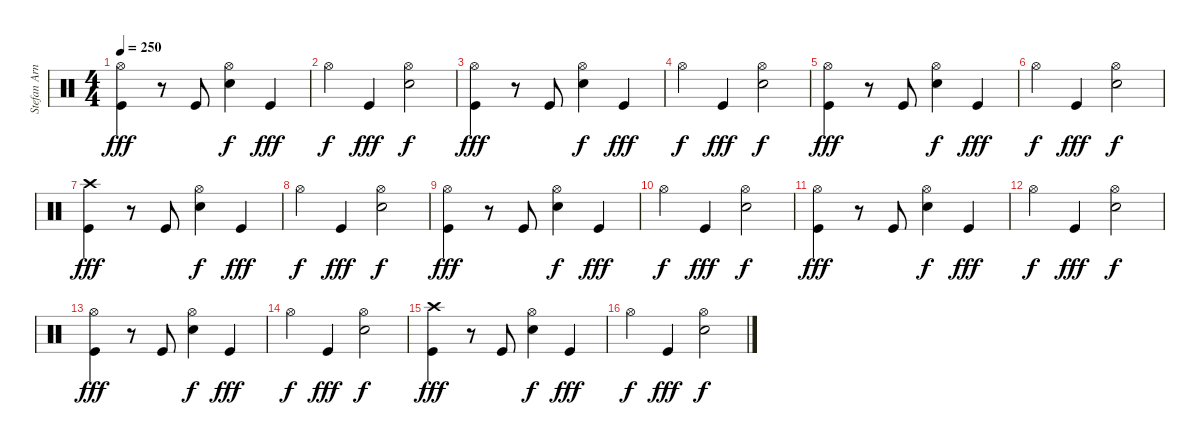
\track ("Stefan Arnold (Batería)" "Stefan Arn") {instrument percussion}
\staff {score}
\articulation defaults
\ts (4 4)
\tempo 250
\clef neutral
\ks c
("Hi-Hat (open)" "Kick (hit)").4{dy fff} r.8 "Kick (hit)".8 ("Hi-Hat (open)" "Electric Snare (hit)").4{dy f} "Kick (hit)".4{dy fff} |
"Hi-Hat (open)".4{dy f} "Kick (hit)".4{dy fff} ("Hi-Hat (open)" "Electric Snare (hit)").2{dy f} |
("Hi-Hat (open)" "Kick (hit)").4{dy fff} r.8 "Kick (hit)".8 ("Hi-Hat (open)" "Electric Snare (hit)").4{dy f} "Kick (hit)".4{dy fff} |
"Hi-Hat (open)".4{dy f} "Kick (hit)".4{dy fff} ("Hi-Hat (open)" "Electric Snare (hit)").2{dy f} |
("Hi-Hat (open)" "Kick (hit)").4{dy fff} r.8 "Kick (hit)".8 ("Hi-Hat (open)" "Electric Snare (hit)").4{dy f} "Kick (hit)".4{dy fff} |
"Hi-Hat (open)".4{dy f} "Kick (hit)".4{dy fff} ("Hi-Hat (open)" "Electric Snare (hit)").2{dy f} |
("Crash high (hit)" "Kick (hit)").4{dy fff} r.8 "Kick (hit)".8 ("Hi-Hat (open)" "Electric Snare (hit)").4{dy f} "Kick (hit)".4{dy fff} |
"Hi-Hat (open)".4{dy f} "Kick (hit)".4{dy fff} ("Hi-Hat (open)" "Electric Snare (hit)").2{dy f} |
("Hi-Hat (open)" "Kick (hit)").4{dy fff} r.8 "Kick (hit)".8 ("Hi-Hat (open)" "Electric Snare (hit)").4{dy f} "Kick (hit)".4{dy fff} |
"Hi-Hat (open)".4{dy f} "Kick (hit)".4{dy fff} ("Hi-Hat (open)" "Electric Snare (hit)").2{dy f} |
("Hi-Hat (open)" "Kick (hit)").4{dy fff} r.8 "Kick (hit)".8 ("Hi-Hat (open)" "Electric Snare (hit)").4{dy f} "Kick (hit)".4{dy fff} |
"Hi-Hat (open)".4{dy f} "Kick (hit)".4{dy fff} ("Hi-Hat (open)" "Electric Snare (hit)").2{dy f} |
("Hi-Hat (open)" "Kick (hit)").4{dy fff} r.8 "Kick (hit)".8 ("Hi-Hat (open)" "Electric Snare (hit)").4{dy f} "Kick (hit)".4{dy fff} |
"Hi-Hat (open)".4{dy f} "Kick (hit)".4{dy fff} ("Hi-Hat (open)" "Electric Snare (hit)").2{dy f} |
("Crash high (hit)" "Kick (hit)").4{dy fff} r.8 "Kick (hit)".8 ("Hi-Hat (open)" "Electric Snare (hit)").4{dy f} "Kick (hit)".4{dy fff} |
"Hi-Hat (open)".4{dy f} "Kick (hit)".4{dy fff} ("Hi-Hat (open)" "Electric Snare (hit)").2{dy f}
